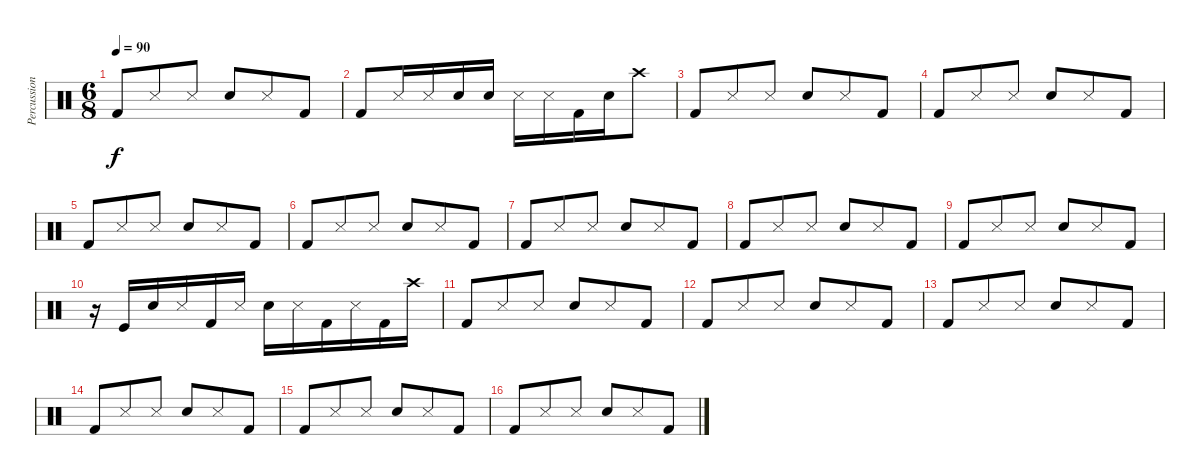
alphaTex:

\track ("Percussion" "Percussion") {instrument percussion}
\staff {score}
\articulation defaults
\ts (6 8)
\tempo 90
\clef neutral
\ks c "Kick (hit) 2".8{dy f} "Snare (side stick) 3".8 "Snare (side stick) 3".8 "Electric Snare (hit)".8 "Snare (side stick) 3".8 "Kick (hit) 2".8
|
"Kick (hit) 2".8 "Snare (side stick) 3".16 "Snare (side stick) 3".16 "Electric Snare (hit)".16 "Electric Snare (hit)".16 "Snare (side stick) 3".16 "Snare (side stick) 3".16 "Kick (hit) 2".16 "Electric Snare (hit)".16 "Crash high (hit)".8 |
"Kick (hit) 2".8 "Snare (side stick) 3".8 "Snare (side stick) 3".8 "Electric Snare (hit)".8 "Snare (side stick) 3".8 "Kick (hit) 2".8 |
"Kick (hit) 2".8 "Snare (side stick) 3".8 "Snare (side stick) 3".8 "Electric Snare (hit)".8 "Snare (side stick) 3".8 "Kick (hit) 2".8 |
"Kick (hit) 2".8 "Snare (side stick) 3".8 "Snare (side stick) 3".8 "Electric Snare (hit)".8 "Snare (side stick) 3".8 "Kick (hit) 2".8 |
"Kick (hit) 2".8 "Snare (side stick) 3".8 "Snare (side stick) 3".8 "Electric Snare (hit)".8 "Snare (side stick) 3".8 "Kick (hit) 2".8 |
"Kick (hit) 2".8 "Snare (side stick) 3".8 "Snare (side stick) 3".8 "Electric Snare (hit)".8 "Snare (side stick) 3".8 "Kick (hit) 2".8 |
"Kick (hit) 2".8 "Snare (side stick) 3".8 "Snare (side stick) 3".8 "Electric Snare (hit)".8 "Snare (side stick) 3".8 "Kick (hit) 2".8 |
"Kick (hit) 2".8 "Snare (side stick) 3".8 "Snare (side stick) 3".8 "Electric Snare (hit)".8 "Snare (side stick) 3".8 "Kick (hit) 2".8 |
r.16 "Kick (hit)".16 "Electric Snare (hit)".16 "Snare (side stick) 3".16 "Kick (hit) 2".16 "Snare (side stick) 3".16 "Electric Snare (hit)".16 "Snare (side stick) 3".16 "Kick (hit) 2".16 "Snare (side stick) 3".16 "Kick (hit) 2".16 "Crash high (hit)".16 |
"Kick (hit) 2".8 "Snare (side stick) 3".8 "Snare (side stick) 3".8 "Electric Snare (hit)".8 "Snare (side stick) 3".8 "Kick (hit) 2".8 |
"Kick (hit) 2".8 "Snare (side stick) 3".8 "Snare (side stick) 3".8 "Electric Snare (hit)".8 "Snare (side stick) 3".8 "Kick (hit) 2".8 |
"Kick (hit) 2".8 "Snare (side stick) 3".8 "Snare (side stick) 3".8 "Electric Snare (hit)".8 "Snare (side stick) 3".8 "Kick (hit) 2".8 |
"Kick (hit) 2".8 "Snare (side stick) 3".8 "Snare (side stick) 3".8 "Electric Snare (hit)".8 "Snare (side stick) 3".8 "Kick (hit) 2".8 |
"Kick (hit) 2".8 "Snare (side stick) 3".8 "Snare (side stick) 3".8 "Electric Snare (hit)".8 "Snare (side stick) 3".8 "Kick (hit) 2".8 |
"Kick (hit) 2".8 "Snare (side stick) 3".8 "Snare (side stick) 3".8 "Electric Snare (hit)".8 "Snare (side stick) 3".8 "Kick (hit) 2".8
